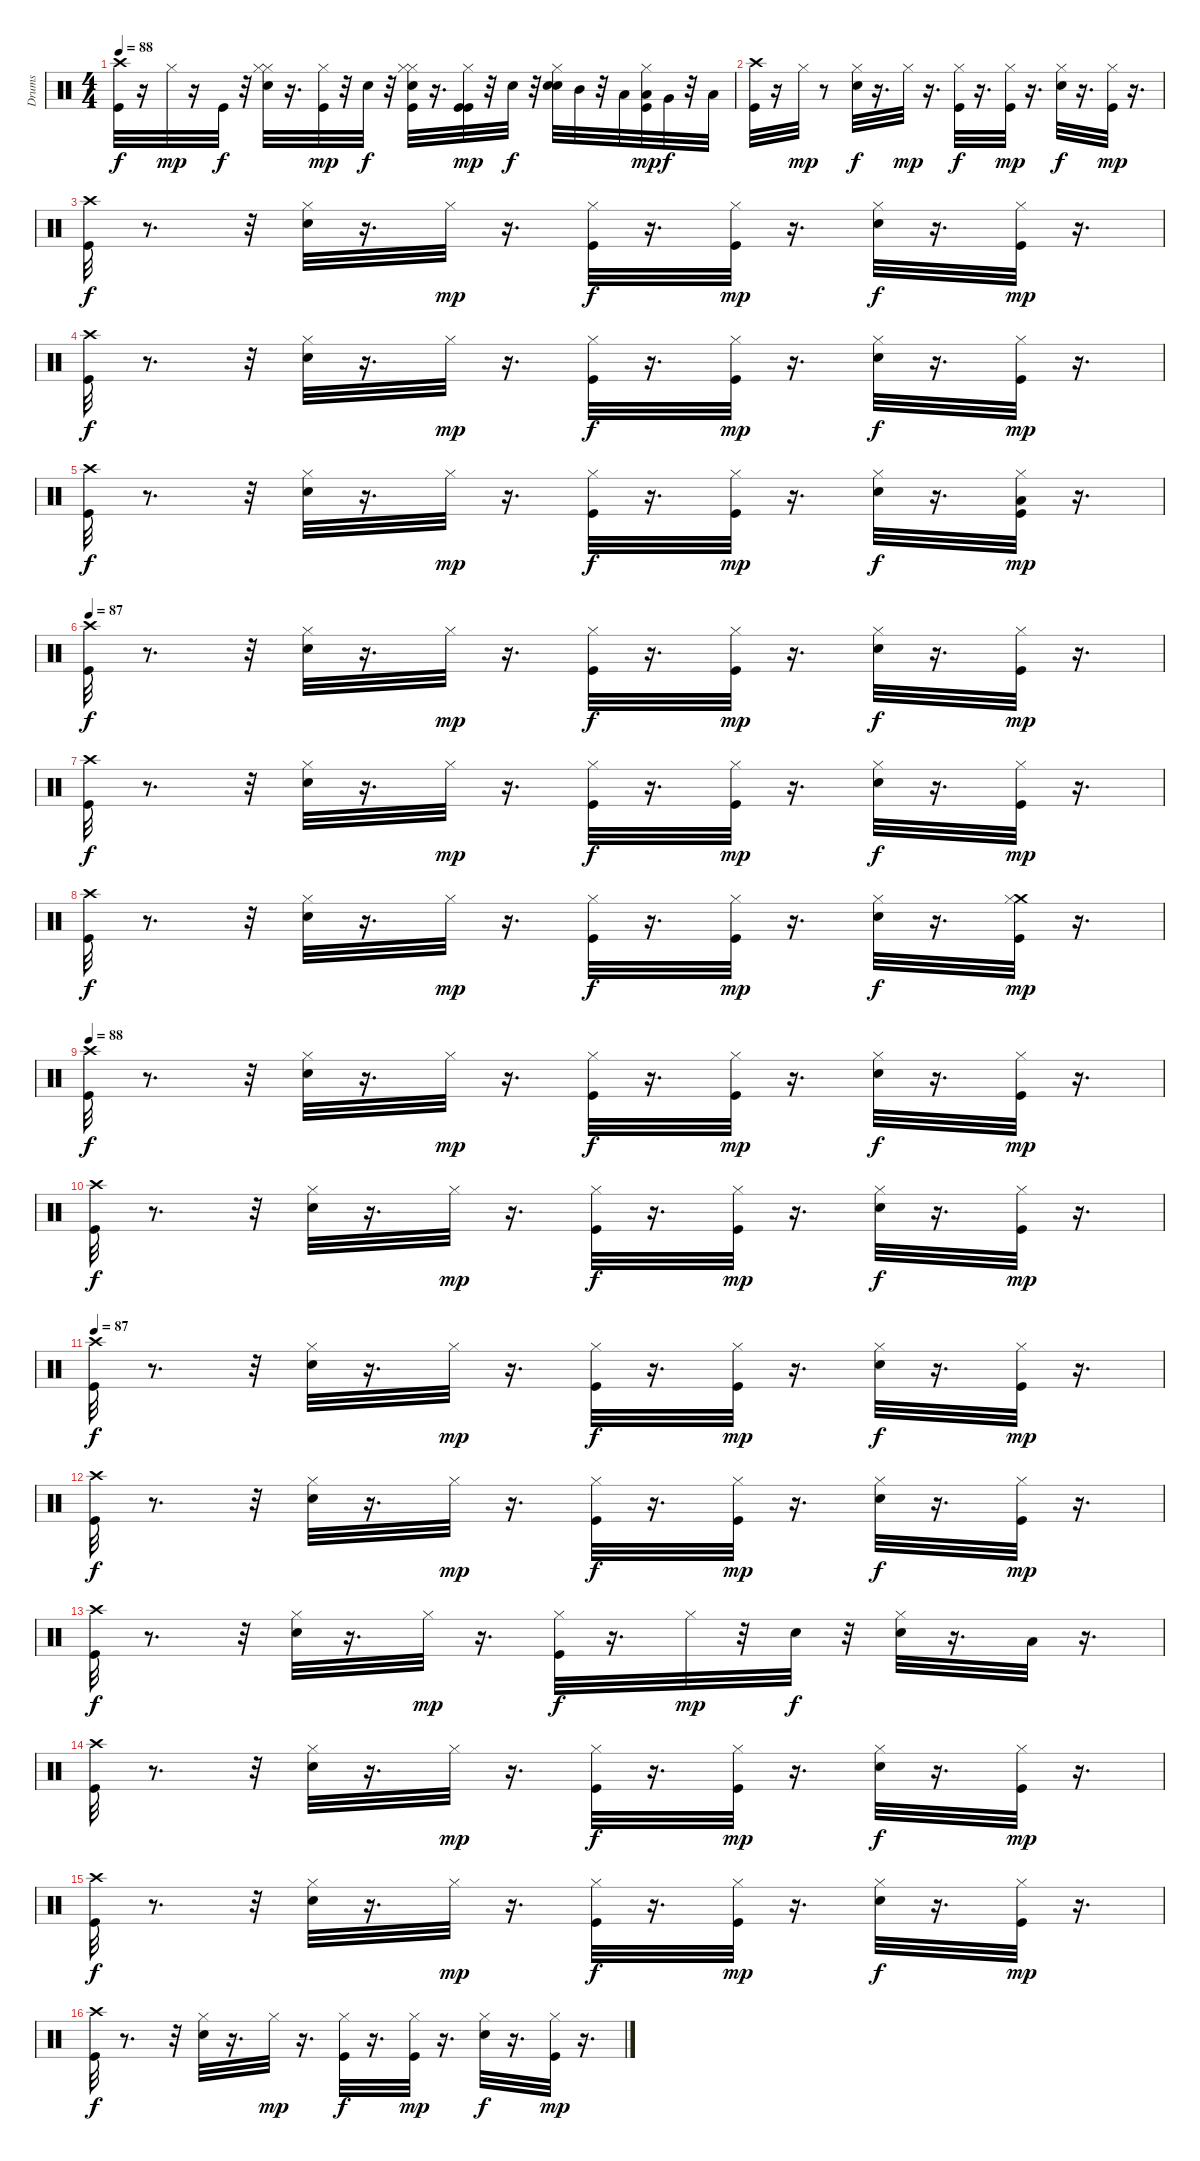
\track ("Drums" "Drums") {instrument percussion}
\staff {score}
\articulation defaults
\ts (4 4)
\tempo 88
\clef neutral
\ks c
("Kick (hit)" "Crash high (hit)").32{dy f} r.16 "Hi-Hat (closed)".32{dy mp} r.16 "Kick (hit)".32{dy f} r.32 ("Hi-Hat (closed)" "Electric Snare (hit)" "Hi-Hat (closed)").32 r.16{d} ("Kick (hit)" "Hi-Hat (closed)").32{dy mp} r.32 "Electric Snare (hit)".32{dy f} r.32 ("Hi-Hat (closed)" "Electric Snare (hit)" "Hi-Hat (closed)" "Kick (hit)").32 r.16{d} ("Kick (hit)" "Hi-Hat (closed)" "Kick (hit)").32{dy mp} r.32 "Electric Snare (hit)".32{dy f} r.32 ("Electric Snare (hit)" "Hi-Hat (closed)" "Electric Snare (hit)").32 "Mid Tom (hit)".32 r.32 "Low Tom (hit)".32 ("Low Tom (hit)" "Hi-Hat (closed)" "Kick (hit)").32{dy mp} "Very Low Tom (hit)".32{dy f} r.32 "Low Floor Tom (hit)".32 |
("Kick (hit)" "Crash high (hit)").32 r.16 "Hi-Hat (closed)".32{dy mp} r.8 ("Electric Snare (hit)" "Hi-Hat (closed)").32{dy f} r.16{d} "Hi-Hat (closed)".32{dy mp} r.16{d} ("Hi-Hat (closed)" "Kick (hit)").32{dy f} r.16{d} ("Hi-Hat (closed)" "Kick (hit)").32{dy mp} r.16{d} ("Electric Snare (hit)" "Hi-Hat (closed)").32{dy f} r.16{d} ("Hi-Hat (closed)" "Kick (hit)").32{dy mp} r.16{d} |
("Kick (hit)" "Crash high (hit)").32{dy f} r.8{d} r.32 ("Electric Snare (hit)" "Hi-Hat (closed)").32 r.16{d} "Hi-Hat (closed)".32{dy mp} r.16{d} ("Hi-Hat (closed)" "Kick (hit)").32{dy f} r.16{d} ("Hi-Hat (closed)" "Kick (hit)").32{dy mp} r.16{d} ("Electric Snare (hit)" "Hi-Hat (closed)").32{dy f} r.16{d} ("Hi-Hat (closed)" "Kick (hit)").32{dy mp} r.16{d} |
("Kick (hit)" "Crash high (hit)").32{dy f} r.8{d} r.32 ("Electric Snare (hit)" "Hi-Hat (closed)").32 r.16{d} "Hi-Hat (closed)".32{dy mp} r.16{d} ("Hi-Hat (closed)" "Kick (hit)").32{dy f} r.16{d} ("Hi-Hat (closed)" "Kick (hit)").32{dy mp} r.16{d} ("Hi-Hat (closed)" "Electric Snare (hit)").32{dy f} r.16{d} ("Hi-Hat (closed)" "Kick (hit)").32{dy mp} r.16{d} |
("Kick (hit)" "Crash high (hit)").32{dy f} r.8{d} r.32 ("Electric Snare (hit)" "Hi-Hat (closed)").32 r.16{d} "Hi-Hat (closed)".32{dy mp} r.16{d} ("Hi-Hat (closed)" "Kick (hit)").32{dy f} r.16{d} ("Hi-Hat (closed)" "Kick (hit)").32{dy mp} r.16{d} ("Electric Snare (hit)" "Hi-Hat (closed)").32{dy f} r.16{d} ("Low Floor Tom (hit)" "Hi-Hat (closed)" "Kick (hit)").32{dy mp} r.16{d} |
\tempo 87
("Kick (hit)" "Crash high (hit)").32{dy f} r.8{d} r.32 ("Electric Snare (hit)" "Hi-Hat (closed)").32 r.16{d} "Hi-Hat (closed)".32{dy mp} r.16{d} ("Hi-Hat (closed)" "Kick (hit)").32{dy f} r.16{d} ("Hi-Hat (closed)" "Kick (hit)").32{dy mp} r.16{d} ("Hi-Hat (closed)" "Electric Snare (hit)").32{dy f} r.16{d} ("Hi-Hat (closed)" "Kick (hit)").32{dy mp} r.16{d} |
("Kick (hit)" "Crash high (hit)").32{dy f} r.8{d} r.32 ("Electric Snare (hit)" "Hi-Hat (closed)").32 r.16{d} "Hi-Hat (closed)".32{dy mp} r.16{d} ("Hi-Hat (closed)" "Kick (hit)").32{dy f} r.16{d} ("Hi-Hat (closed)" "Kick (hit)").32{dy mp} r.16{d} ("Hi-Hat (closed)" "Electric Snare (hit)").32{dy f} r.16{d} ("Hi-Hat (closed)" "Kick (hit)").32{dy mp} r.16{d} |
("Kick (hit)" "Crash high (hit)").32{dy f} r.8{d} r.32 ("Electric Snare (hit)" "Hi-Hat (closed)").32 r.16{d} "Hi-Hat (closed)".32{dy mp} r.16{d} ("Hi-Hat (closed)" "Kick (hit)").32{dy f} r.16{d} ("Hi-Hat (closed)" "Kick (hit)").32{dy mp} r.16{d} ("Hi-Hat (closed)" "Electric Snare (hit)").32{dy f} r.16{d} ("Crash medium (hit)" "Hi-Hat (closed)" "Kick (hit)").32{dy mp} r.16{d} |
\tempo 88
("Kick (hit)" "Crash high (hit)").32{dy f} r.8{d} r.32 ("Electric Snare (hit)" "Hi-Hat (closed)").32 r.16{d} "Hi-Hat (closed)".32{dy mp} r.16{d} ("Hi-Hat (closed)" "Kick (hit)").32{dy f} r.16{d} ("Hi-Hat (closed)" "Kick (hit)").32{dy mp} r.16{d} ("Hi-Hat (closed)" "Electric Snare (hit)").32{dy f} r.16{d} ("Hi-Hat (closed)" "Kick (hit)").32{dy mp} r.16{d} |
("Kick (hit)" "Crash high (hit)").32{dy f} r.8{d} r.32 ("Electric Snare (hit)" "Hi-Hat (closed)").32 r.16{d} "Hi-Hat (closed)".32{dy mp} r.16{d} ("Hi-Hat (closed)" "Kick (hit)").32{dy f} r.16{d} ("Hi-Hat (closed)" "Kick (hit)").32{dy mp} r.16{d} ("Hi-Hat (closed)" "Electric Snare (hit)").32{dy f} r.16{d} ("Hi-Hat (closed)" "Kick (hit)").32{dy mp} r.16{d} |
\tempo 87
("Kick (hit)" "Crash high (hit)").32{dy f} r.8{d} r.32 ("Electric Snare (hit)" "Hi-Hat (closed)").32 r.16{d} "Hi-Hat (closed)".32{dy mp} r.16{d} ("Hi-Hat (closed)" "Kick (hit)").32{dy f} r.16{d} ("Hi-Hat (closed)" "Kick (hit)").32{dy mp} r.16{d} ("Hi-Hat (closed)" "Electric Snare (hit)").32{dy f} r.16{d} ("Hi-Hat (closed)" "Kick (hit)").32{dy mp} r.16{d} |
("Kick (hit)" "Crash high (hit)").32{dy f} r.8{d} r.32 ("Electric Snare (hit)" "Hi-Hat (closed)").32 r.16{d} "Hi-Hat (closed)".32{dy mp} r.16{d} ("Hi-Hat (closed)" "Kick (hit)").32{dy f} r.16{d} ("Hi-Hat (closed)" "Kick (hit)").32{dy mp} r.16{d} ("Hi-Hat (closed)" "Electric Snare (hit)").32{dy f} r.16{d} ("Hi-Hat (closed)" "Kick (hit)").32{dy mp} r.16{d} |
("Kick (hit)" "Crash high (hit)").32{dy f} r.8{d} r.32 ("Electric Snare (hit)" "Hi-Hat (closed)").32 r.16{d} "Hi-Hat (closed)".32{dy mp} r.16{d} ("Hi-Hat (closed)" "Kick (hit)").32{dy f} r.16{d} "Hi-Hat (closed)".32{dy mp} r.32 "Electric Snare (hit)".32{dy f} r.32 ("Hi-Hat (closed)" "Electric Snare (hit)").32 r.16{d} "Low Floor Tom (hit)".32 r.16{d} |
("Kick (hit)" "Crash high (hit)").32 r.8{d} r.32 ("Electric Snare (hit)" "Hi-Hat (closed)").32 r.16{d} "Hi-Hat (closed)".32{dy mp} r.16{d} ("Hi-Hat (closed)" "Kick (hit)").32{dy f} r.16{d} ("Hi-Hat (closed)" "Kick (hit)").32{dy mp} r.16{d} ("Hi-Hat (closed)" "Electric Snare (hit)").32{dy f} r.16{d} ("Hi-Hat (closed)" "Kick (hit)").32{dy mp} r.16{d} |
("Kick (hit)" "Crash high (hit)").32{dy f} r.8{d} r.32 ("Electric Snare (hit)" "Hi-Hat (closed)").32 r.16{d} "Hi-Hat (closed)".32{dy mp} r.16{d} ("Hi-Hat (closed)" "Kick (hit)").32{dy f} r.16{d} ("Hi-Hat (closed)" "Kick (hit)").32{dy mp} r.16{d} ("Hi-Hat (closed)" "Electric Snare (hit)").32{dy f} r.16{d} ("Hi-Hat (closed)" "Kick (hit)").32{dy mp} r.16{d} |
("Kick (hit)" "Crash high (hit)").32{dy f} r.8{d} r.32 ("Electric Snare (hit)" "Hi-Hat (closed)").32 r.16{d} "Hi-Hat (closed)".32{dy mp} r.16{d} ("Hi-Hat (closed)" "Kick (hit)").32{dy f} r.16{d} ("Hi-Hat (closed)" "Kick (hit)").32{dy mp} r.16{d} ("Hi-Hat (closed)" "Electric Snare (hit)").32{dy f} r.16{d} ("Hi-Hat (closed)" "Kick (hit)").32{dy mp} r.16{d}
